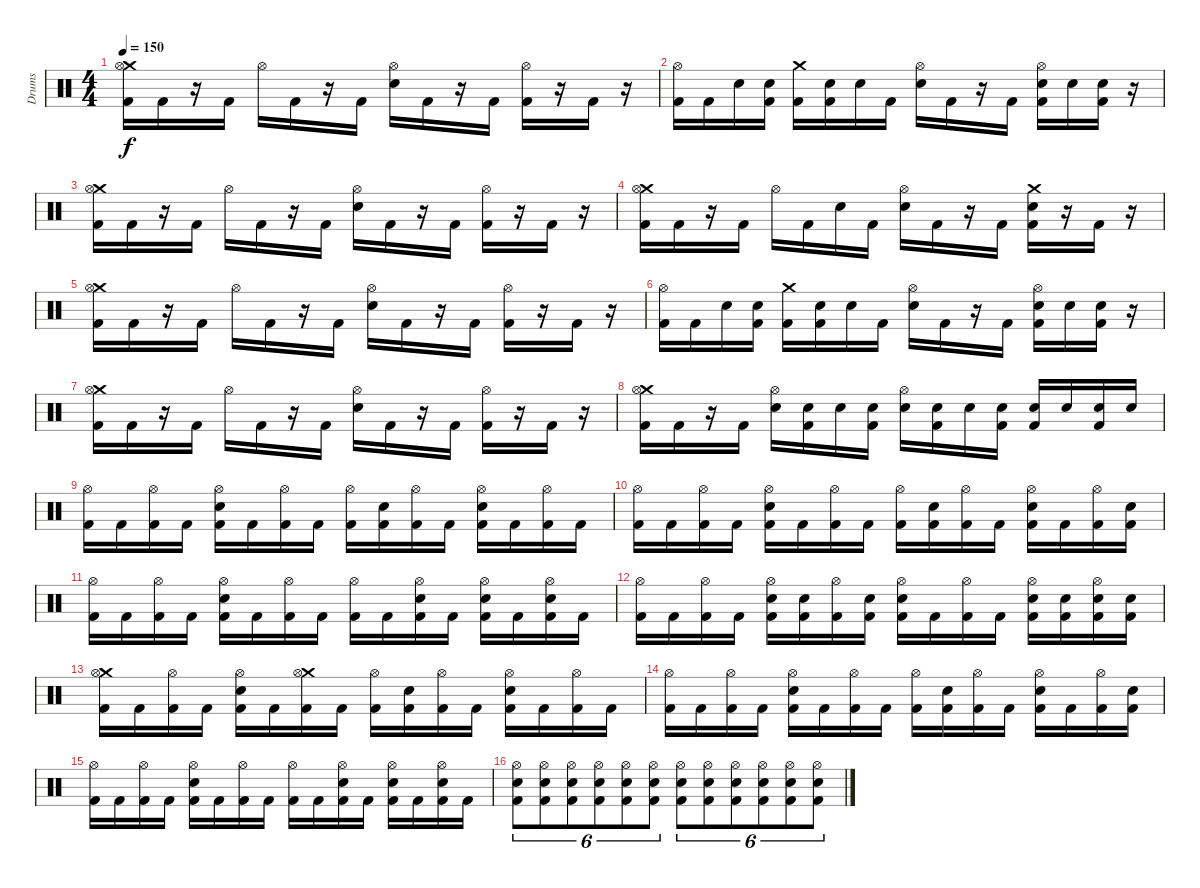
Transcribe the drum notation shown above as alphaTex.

\track ("Drums" "Drums") {instrument percussion}
\staff {score}
\articulation defaults
\ts (4 4)
\tempo 150
\clef neutral
\ks c
("Crash medium (hit)" "Hi-Hat (open)" "Kick (hit) 2").16{dy f} "Kick (hit) 2".16 r.16 "Kick (hit) 2".16 "Hi-Hat (open)".16 "Kick (hit) 2".16 r.16 "Kick (hit) 2".16 ("Hi-Hat (open)" "Electric Snare (hit)").16 "Kick (hit) 2".16 r.16 "Kick (hit) 2".16 ("Hi-Hat (open)" "Kick (hit) 2").16 r.16 "Kick (hit) 2".16 r.16 |
("Hi-Hat (open)" "Kick (hit) 2").16 "Kick (hit) 2".16 "Electric Snare (hit)".16 ("Electric Snare (hit)" "Kick (hit) 2").16 ("Crash medium (hit)" "Kick (hit) 2").16 ("Electric Snare (hit)" "Kick (hit) 2").16 "Electric Snare (hit)".16 "Kick (hit) 2".16 ("Hi-Hat (open)" "Electric Snare (hit)").16 "Kick (hit) 2".16 r.16 "Kick (hit) 2".16 ("Hi-Hat (open)" "Electric Snare (hit)" "Kick (hit) 2").16 "Electric Snare (hit)".16 ("Electric Snare (hit)" "Kick (hit) 2").16 r.16 |
("Crash medium (hit)" "Hi-Hat (open)" "Kick (hit) 2").16 "Kick (hit) 2".16 r.16 "Kick (hit) 2".16 "Hi-Hat (open)".16 "Kick (hit) 2".16 r.16 "Kick (hit) 2".16 ("Hi-Hat (open)" "Electric Snare (hit)").16 "Kick (hit) 2".16 r.16 "Kick (hit) 2".16 ("Hi-Hat (open)" "Kick (hit) 2").16 r.16 "Kick (hit) 2".16 r.16 |
("Crash medium (hit)" "Hi-Hat (open)" "Kick (hit) 2").16 "Kick (hit) 2".16 r.16 "Kick (hit) 2".16 "Hi-Hat (open)".16 "Kick (hit) 2".16 "Electric Snare (hit)".16 "Kick (hit) 2".16 ("Hi-Hat (open)" "Electric Snare (hit)").16 "Kick (hit) 2".16 r.16 "Kick (hit) 2".16 ("Crash medium (hit)" "Electric Snare (hit)" "Kick (hit) 2").16 r.16 "Kick (hit) 2".16 r.16 |
("Crash medium (hit)" "Hi-Hat (open)" "Kick (hit) 2").16 "Kick (hit) 2".16 r.16 "Kick (hit) 2".16 "Hi-Hat (open)".16 "Kick (hit) 2".16 r.16 "Kick (hit) 2".16 ("Hi-Hat (open)" "Electric Snare (hit)").16 "Kick (hit) 2".16 r.16 "Kick (hit) 2".16 ("Hi-Hat (open)" "Kick (hit) 2").16 r.16 "Kick (hit) 2".16 r.16 |
("Hi-Hat (open)" "Kick (hit) 2").16 "Kick (hit) 2".16 "Electric Snare (hit)".16 ("Electric Snare (hit)" "Kick (hit) 2").16 ("Crash medium (hit)" "Kick (hit) 2").16 ("Electric Snare (hit)" "Kick (hit) 2").16 "Electric Snare (hit)".16 "Kick (hit) 2".16 ("Hi-Hat (open)" "Electric Snare (hit)").16 "Kick (hit) 2".16 r.16 "Kick (hit) 2".16 ("Hi-Hat (open)" "Electric Snare (hit)" "Kick (hit) 2").16 "Electric Snare (hit)".16 ("Electric Snare (hit)" "Kick (hit) 2").16 r.16 |
("Crash medium (hit)" "Hi-Hat (open)" "Kick (hit) 2").16 "Kick (hit) 2".16 r.16 "Kick (hit) 2".16 "Hi-Hat (open)".16 "Kick (hit) 2".16 r.16 "Kick (hit) 2".16 ("Hi-Hat (open)" "Electric Snare (hit)").16 "Kick (hit) 2".16 r.16 "Kick (hit) 2".16 ("Hi-Hat (open)" "Kick (hit) 2").16 r.16 "Kick (hit) 2".16 r.16 |
("Crash medium (hit)" "Hi-Hat (open)" "Kick (hit) 2").16 "Kick (hit) 2".16 r.16 "Kick (hit) 2".16 ("Hi-Hat (open)" "Electric Snare (hit)").16 ("Electric Snare (hit)" "Kick (hit) 2").16 "Electric Snare (hit)".16 ("Electric Snare (hit)" "Kick (hit) 2").16 ("Hi-Hat (open)" "Electric Snare (hit)").16 ("Electric Snare (hit)" "Kick (hit) 2").16 "Electric Snare (hit)".16 ("Electric Snare (hit)" "Kick (hit) 2").16 ("Electric Snare (hit)" "Kick (hit) 2").16 "Electric Snare (hit)".16 ("Electric Snare (hit)" "Kick (hit) 2").16 "Electric Snare (hit)".16 |
("Hi-Hat (open)" "Kick (hit) 2").16 "Kick (hit) 2".16 ("Hi-Hat (open)" "Kick (hit) 2").16 "Kick (hit) 2".16 ("Hi-Hat (open)" "Electric Snare (hit)" "Kick (hit) 2").16 "Kick (hit) 2".16 ("Hi-Hat (open)" "Kick (hit) 2").16 "Kick (hit) 2".16 ("Hi-Hat (open)" "Kick (hit) 2").16 ("Electric Snare (hit)" "Kick (hit) 2").16 ("Hi-Hat (open)" "Kick (hit) 2").16 "Kick (hit) 2".16 ("Hi-Hat (open)" "Electric Snare (hit)" "Kick (hit) 2").16 "Kick (hit) 2".16 ("Hi-Hat (open)" "Kick (hit) 2").16 "Kick (hit) 2".16 |
("Hi-Hat (open)" "Kick (hit) 2").16 "Kick (hit) 2".16 ("Hi-Hat (open)" "Kick (hit) 2").16 "Kick (hit) 2".16 ("Hi-Hat (open)" "Electric Snare (hit)" "Kick (hit) 2").16 "Kick (hit) 2".16 ("Hi-Hat (open)" "Kick (hit) 2").16 "Kick (hit) 2".16 ("Hi-Hat (open)" "Kick (hit) 2").16 ("Electric Snare (hit)" "Kick (hit) 2").16 ("Hi-Hat (open)" "Kick (hit) 2").16 "Kick (hit) 2".16 ("Hi-Hat (open)" "Electric Snare (hit)" "Kick (hit) 2").16 "Kick (hit) 2".16 ("Hi-Hat (open)" "Kick (hit) 2").16 ("Electric Snare (hit)" "Kick (hit) 2").16 |
("Hi-Hat (open)" "Kick (hit) 2").16 "Kick (hit) 2".16 ("Hi-Hat (open)" "Kick (hit) 2").16 "Kick (hit) 2".16 ("Hi-Hat (open)" "Electric Snare (hit)" "Kick (hit) 2").16 "Kick (hit) 2".16 ("Hi-Hat (open)" "Kick (hit) 2").16 "Kick (hit) 2".16 ("Hi-Hat (open)" "Kick (hit) 2").16 "Kick (hit) 2".16 ("Hi-Hat (open)" "Electric Snare (hit)" "Kick (hit) 2").16 "Kick (hit) 2".16 ("Hi-Hat (open)" "Electric Snare (hit)" "Kick (hit) 2").16 "Kick (hit) 2".16 ("Hi-Hat (open)" "Electric Snare (hit)" "Kick (hit) 2").16 "Kick (hit) 2".16 |
("Hi-Hat (open)" "Kick (hit) 2").16 "Kick (hit) 2".16 ("Hi-Hat (open)" "Kick (hit) 2").16 "Kick (hit) 2".16 ("Hi-Hat (open)" "Electric Snare (hit)" "Kick (hit) 2").16 ("Electric Snare (hit)" "Kick (hit) 2").16 ("Hi-Hat (open)" "Kick (hit) 2").16 ("Electric Snare (hit)" "Kick (hit) 2").16 ("Hi-Hat (open)" "Electric Snare (hit)" "Kick (hit) 2").16 "Kick (hit) 2".16 ("Hi-Hat (open)" "Kick (hit) 2").16 "Kick (hit) 2".16 ("Hi-Hat (open)" "Electric Snare (hit)" "Kick (hit) 2").16 ("Electric Snare (hit)" "Kick (hit) 2").16 ("Hi-Hat (open)" "Electric Snare (hit)" "Kick (hit) 2").16 ("Electric Snare (hit)" "Kick (hit) 2").16 |
("Crash medium (hit)" "Hi-Hat (open)" "Kick (hit) 2").16 "Kick (hit) 2".16 ("Hi-Hat (open)" "Kick (hit) 2").16 "Kick (hit) 2".16 ("Hi-Hat (open)" "Electric Snare (hit)" "Kick (hit) 2").16 "Kick (hit) 2".16 ("Crash medium (hit)" "Hi-Hat (open)" "Kick (hit) 2").16 "Kick (hit) 2".16 ("Hi-Hat (open)" "Kick (hit) 2").16 ("Electric Snare (hit)" "Kick (hit) 2").16 ("Hi-Hat (open)" "Kick (hit) 2").16 "Kick (hit) 2".16 ("Hi-Hat (open)" "Electric Snare (hit)" "Kick (hit) 2").16 "Kick (hit) 2".16 ("Hi-Hat (open)" "Kick (hit) 2").16 "Kick (hit) 2".16 |
("Hi-Hat (open)" "Kick (hit) 2").16 "Kick (hit) 2".16 ("Hi-Hat (open)" "Kick (hit) 2").16 "Kick (hit) 2".16 ("Hi-Hat (open)" "Electric Snare (hit)" "Kick (hit) 2").16 "Kick (hit) 2".16 ("Hi-Hat (open)" "Kick (hit) 2").16 "Kick (hit) 2".16 ("Hi-Hat (open)" "Kick (hit) 2").16 ("Electric Snare (hit)" "Kick (hit) 2").16 ("Hi-Hat (open)" "Kick (hit) 2").16 "Kick (hit) 2".16 ("Hi-Hat (open)" "Electric Snare (hit)" "Kick (hit) 2").16 "Kick (hit) 2".16 ("Hi-Hat (open)" "Kick (hit) 2").16 ("Electric Snare (hit)" "Kick (hit) 2").16 |
("Hi-Hat (open)" "Kick (hit) 2").16 "Kick (hit) 2".16 ("Hi-Hat (open)" "Kick (hit) 2").16 "Kick (hit) 2".16 ("Hi-Hat (open)" "Electric Snare (hit)" "Kick (hit) 2").16 "Kick (hit) 2".16 ("Hi-Hat (open)" "Kick (hit) 2").16 "Kick (hit) 2".16 ("Hi-Hat (open)" "Kick (hit) 2").16 "Kick (hit) 2".16 ("Hi-Hat (open)" "Electric Snare (hit)" "Kick (hit) 2").16 "Kick (hit) 2".16 ("Hi-Hat (open)" "Electric Snare (hit)" "Kick (hit) 2").16 "Kick (hit) 2".16 ("Hi-Hat (open)" "Electric Snare (hit)" "Kick (hit) 2").16 "Kick (hit) 2".16 |
("Kick (hit) 2" "Hi-Hat (open)" "Electric Snare (hit)").8{tu (6 4)} ("Kick (hit) 2" "Hi-Hat (open)" "Electric Snare (hit)").8{tu (6 4)} ("Kick (hit) 2" "Hi-Hat (open)" "Electric Snare (hit)").8{tu (6 4)} ("Kick (hit) 2" "Hi-Hat (open)" "Electric Snare (hit)").8{tu (6 4)} ("Kick (hit) 2" "Hi-Hat (open)" "Electric Snare (hit)").8{tu (6 4)} ("Kick (hit) 2" "Hi-Hat (open)" "Electric Snare (hit)").8{tu (6 4)} ("Kick (hit) 2" "Hi-Hat (open)" "Electric Snare (hit)").8{tu (6 4)} ("Kick (hit) 2" "Hi-Hat (open)" "Electric Snare (hit)").8{tu (6 4)} ("Kick (hit) 2" "Hi-Hat (open)" "Electric Snare (hit)").8{tu (6 4)} ("Kick (hit) 2" "Hi-Hat (open)" "Electric Snare (hit)").8{tu (6 4)} ("Kick (hit) 2" "Hi-Hat (open)" "Electric Snare (hit)").8{tu (6 4)} ("Kick (hit) 2" "Hi-Hat (open)" "Electric Snare (hit)").8{tu (6 4)}
